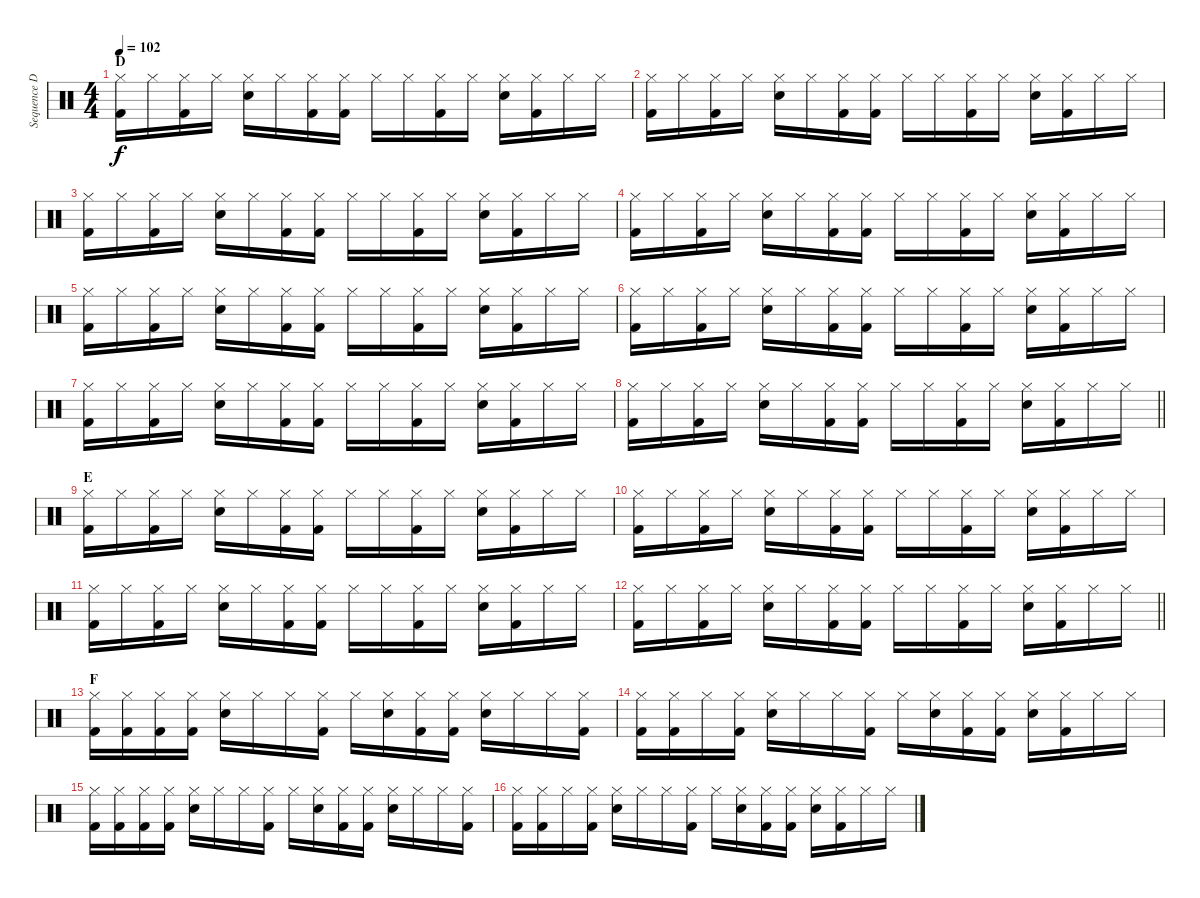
\track ("Sequence Drums" "Sequence D") {instrument percussion}
\staff {score}
\articulation defaults
\ts (4 4)
\section ("" "D")
\tempo 102
\clef neutral
\ks c
("Hi-Hat (closed)" "Kick (hit) 2").16{dy f} "Hi-Hat (closed)".16 ("Hi-Hat (closed)" "Kick (hit) 2").16 "Hi-Hat (closed)".16 ("Hi-Hat (closed)" "Electric Snare (hit)").16 "Hi-Hat (closed)".16 ("Hi-Hat (closed)" "Kick (hit) 2").16 ("Hi-Hat (closed)" "Kick (hit) 2").16 "Hi-Hat (closed)".16 "Hi-Hat (closed)".16 ("Hi-Hat (closed)" "Kick (hit) 2").16 "Hi-Hat (closed)".16 ("Hi-Hat (closed)" "Electric Snare (hit)").16 ("Hi-Hat (closed)" "Kick (hit) 2").16 "Hi-Hat (closed)".16 "Hi-Hat (closed)".16 |
("Hi-Hat (closed)" "Kick (hit) 2").16 "Hi-Hat (closed)".16 ("Hi-Hat (closed)" "Kick (hit) 2").16 "Hi-Hat (closed)".16 ("Hi-Hat (closed)" "Electric Snare (hit)").16 "Hi-Hat (closed)".16 ("Hi-Hat (closed)" "Kick (hit) 2").16 ("Hi-Hat (closed)" "Kick (hit) 2").16 "Hi-Hat (closed)".16 "Hi-Hat (closed)".16 ("Hi-Hat (closed)" "Kick (hit) 2").16 "Hi-Hat (closed)".16 ("Hi-Hat (closed)" "Electric Snare (hit)").16 ("Hi-Hat (closed)" "Kick (hit) 2").16 "Hi-Hat (closed)".16 "Hi-Hat (closed)".16 |
("Hi-Hat (closed)" "Kick (hit) 2").16 "Hi-Hat (closed)".16 ("Hi-Hat (closed)" "Kick (hit) 2").16 "Hi-Hat (closed)".16 ("Hi-Hat (closed)" "Electric Snare (hit)").16 "Hi-Hat (closed)".16 ("Hi-Hat (closed)" "Kick (hit) 2").16 ("Hi-Hat (closed)" "Kick (hit) 2").16 "Hi-Hat (closed)".16 "Hi-Hat (closed)".16 ("Hi-Hat (closed)" "Kick (hit) 2").16 "Hi-Hat (closed)".16 ("Hi-Hat (closed)" "Electric Snare (hit)").16 ("Hi-Hat (closed)" "Kick (hit) 2").16 "Hi-Hat (closed)".16 "Hi-Hat (closed)".16 |
("Hi-Hat (closed)" "Kick (hit) 2").16 "Hi-Hat (closed)".16 ("Hi-Hat (closed)" "Kick (hit) 2").16 "Hi-Hat (closed)".16 ("Hi-Hat (closed)" "Electric Snare (hit)").16 "Hi-Hat (closed)".16 ("Hi-Hat (closed)" "Kick (hit) 2").16 ("Hi-Hat (closed)" "Kick (hit) 2").16 "Hi-Hat (closed)".16 "Hi-Hat (closed)".16 ("Hi-Hat (closed)" "Kick (hit) 2").16 "Hi-Hat (closed)".16 ("Hi-Hat (closed)" "Electric Snare (hit)").16 ("Hi-Hat (closed)" "Kick (hit) 2").16 "Hi-Hat (closed)".16 "Hi-Hat (closed)".16 |
("Hi-Hat (closed)" "Kick (hit) 2").16 "Hi-Hat (closed)".16 ("Hi-Hat (closed)" "Kick (hit) 2").16 "Hi-Hat (closed)".16 ("Hi-Hat (closed)" "Electric Snare (hit)").16 "Hi-Hat (closed)".16 ("Hi-Hat (closed)" "Kick (hit) 2").16 ("Hi-Hat (closed)" "Kick (hit) 2").16 "Hi-Hat (closed)".16 "Hi-Hat (closed)".16 ("Hi-Hat (closed)" "Kick (hit) 2").16 "Hi-Hat (closed)".16 ("Hi-Hat (closed)" "Electric Snare (hit)").16 ("Hi-Hat (closed)" "Kick (hit) 2").16 "Hi-Hat (closed)".16 "Hi-Hat (closed)".16 |
("Hi-Hat (closed)" "Kick (hit) 2").16 "Hi-Hat (closed)".16 ("Hi-Hat (closed)" "Kick (hit) 2").16 "Hi-Hat (closed)".16 ("Hi-Hat (closed)" "Electric Snare (hit)").16 "Hi-Hat (closed)".16 ("Hi-Hat (closed)" "Kick (hit) 2").16 ("Hi-Hat (closed)" "Kick (hit) 2").16 "Hi-Hat (closed)".16 "Hi-Hat (closed)".16 ("Hi-Hat (closed)" "Kick (hit) 2").16 "Hi-Hat (closed)".16 ("Hi-Hat (closed)" "Electric Snare (hit)").16 ("Hi-Hat (closed)" "Kick (hit) 2").16 "Hi-Hat (closed)".16 "Hi-Hat (closed)".16 |
("Hi-Hat (closed)" "Kick (hit) 2").16 "Hi-Hat (closed)".16 ("Hi-Hat (closed)" "Kick (hit) 2").16 "Hi-Hat (closed)".16 ("Hi-Hat (closed)" "Electric Snare (hit)").16 "Hi-Hat (closed)".16 ("Hi-Hat (closed)" "Kick (hit) 2").16 ("Hi-Hat (closed)" "Kick (hit) 2").16 "Hi-Hat (closed)".16 "Hi-Hat (closed)".16 ("Hi-Hat (closed)" "Kick (hit) 2").16 "Hi-Hat (closed)".16 ("Hi-Hat (closed)" "Electric Snare (hit)").16 ("Hi-Hat (closed)" "Kick (hit) 2").16 "Hi-Hat (closed)".16 "Hi-Hat (closed)".16 |
\barLineRight lightlight
("Hi-Hat (closed)" "Kick (hit) 2").16 "Hi-Hat (closed)".16 ("Hi-Hat (closed)" "Kick (hit) 2").16 "Hi-Hat (closed)".16 ("Hi-Hat (closed)" "Electric Snare (hit)").16 "Hi-Hat (closed)".16 ("Hi-Hat (closed)" "Kick (hit) 2").16 ("Hi-Hat (closed)" "Kick (hit) 2").16 "Hi-Hat (closed)".16 "Hi-Hat (closed)".16 ("Hi-Hat (closed)" "Kick (hit) 2").16 "Hi-Hat (closed)".16 ("Hi-Hat (closed)" "Electric Snare (hit)").16 ("Hi-Hat (closed)" "Kick (hit) 2").16 "Hi-Hat (closed)".16 "Hi-Hat (closed)".16 |
\section ("" "E")
("Hi-Hat (closed)" "Kick (hit) 2").16 "Hi-Hat (closed)".16 ("Hi-Hat (closed)" "Kick (hit) 2").16 "Hi-Hat (closed)".16 ("Hi-Hat (closed)" "Electric Snare (hit)").16 "Hi-Hat (closed)".16 ("Hi-Hat (closed)" "Kick (hit) 2").16 ("Hi-Hat (closed)" "Kick (hit) 2").16 "Hi-Hat (closed)".16 "Hi-Hat (closed)".16 ("Hi-Hat (closed)" "Kick (hit) 2").16 "Hi-Hat (closed)".16 ("Hi-Hat (closed)" "Electric Snare (hit)").16 ("Hi-Hat (closed)" "Kick (hit) 2").16 "Hi-Hat (closed)".16 "Hi-Hat (closed)".16 |
("Hi-Hat (closed)" "Kick (hit) 2").16 "Hi-Hat (closed)".16 ("Hi-Hat (closed)" "Kick (hit) 2").16 "Hi-Hat (closed)".16 ("Hi-Hat (closed)" "Electric Snare (hit)").16 "Hi-Hat (closed)".16 ("Hi-Hat (closed)" "Kick (hit) 2").16 ("Hi-Hat (closed)" "Kick (hit) 2").16 "Hi-Hat (closed)".16 "Hi-Hat (closed)".16 ("Hi-Hat (closed)" "Kick (hit) 2").16 "Hi-Hat (closed)".16 ("Hi-Hat (closed)" "Electric Snare (hit)").16 ("Hi-Hat (closed)" "Kick (hit) 2").16 "Hi-Hat (closed)".16 "Hi-Hat (closed)".16 |
("Hi-Hat (closed)" "Kick (hit) 2").16 "Hi-Hat (closed)".16 ("Hi-Hat (closed)" "Kick (hit) 2").16 "Hi-Hat (closed)".16 ("Hi-Hat (closed)" "Electric Snare (hit)").16 "Hi-Hat (closed)".16 ("Hi-Hat (closed)" "Kick (hit) 2").16 ("Hi-Hat (closed)" "Kick (hit) 2").16 "Hi-Hat (closed)".16 "Hi-Hat (closed)".16 ("Hi-Hat (closed)" "Kick (hit) 2").16 "Hi-Hat (closed)".16 ("Hi-Hat (closed)" "Electric Snare (hit)").16 ("Hi-Hat (closed)" "Kick (hit) 2").16 "Hi-Hat (closed)".16 "Hi-Hat (closed)".16 |
\barLineRight lightlight
("Hi-Hat (closed)" "Kick (hit) 2").16 "Hi-Hat (closed)".16 ("Hi-Hat (closed)" "Kick (hit) 2").16 "Hi-Hat (closed)".16 ("Hi-Hat (closed)" "Electric Snare (hit)").16 "Hi-Hat (closed)".16 ("Hi-Hat (closed)" "Kick (hit) 2").16 ("Hi-Hat (closed)" "Kick (hit) 2").16 "Hi-Hat (closed)".16 "Hi-Hat (closed)".16 ("Hi-Hat (closed)" "Kick (hit) 2").16 "Hi-Hat (closed)".16 ("Hi-Hat (closed)" "Electric Snare (hit)").16 ("Hi-Hat (closed)" "Kick (hit) 2").16 "Hi-Hat (closed)".16 "Hi-Hat (closed)".16 |
\section ("" "F")
("Hi-Hat (closed)" "Kick (hit) 2").16 ("Hi-Hat (closed)" "Kick (hit) 2").16 ("Hi-Hat (closed)" "Kick (hit) 2").16 ("Hi-Hat (closed)" "Kick (hit) 2").16 ("Hi-Hat (closed)" "Electric Snare (hit)").16 "Hi-Hat (closed)".16 "Hi-Hat (closed)".16 ("Hi-Hat (closed)" "Kick (hit) 2").16 "Hi-Hat (closed)".16 ("Hi-Hat (closed)" "Electric Snare (hit)").16 ("Hi-Hat (closed)" "Kick (hit) 2").16 ("Hi-Hat (closed)" "Kick (hit) 2").16 ("Hi-Hat (closed)" "Electric Snare (hit)").16 "Hi-Hat (closed)".16 "Hi-Hat (closed)".16 ("Hi-Hat (closed)" "Kick (hit) 2").16 |
("Hi-Hat (closed)" "Kick (hit) 2").16 ("Hi-Hat (closed)" "Kick (hit) 2").16 "Hi-Hat (closed)".16 ("Hi-Hat (closed)" "Kick (hit) 2").16 ("Hi-Hat (closed)" "Electric Snare (hit)").16 "Hi-Hat (closed)".16 "Hi-Hat (closed)".16 ("Hi-Hat (closed)" "Kick (hit) 2").16 "Hi-Hat (closed)".16 ("Hi-Hat (closed)" "Electric Snare (hit)").16 ("Hi-Hat (closed)" "Kick (hit) 2").16 ("Hi-Hat (closed)" "Kick (hit) 2").16 ("Hi-Hat (closed)" "Electric Snare (hit)").16 ("Hi-Hat (closed)" "Kick (hit) 2").16 "Hi-Hat (closed)".16 "Hi-Hat (closed)".16 |
("Hi-Hat (closed)" "Kick (hit) 2").16 ("Hi-Hat (closed)" "Kick (hit) 2").16 ("Hi-Hat (closed)" "Kick (hit) 2").16 ("Hi-Hat (closed)" "Kick (hit) 2").16 ("Hi-Hat (closed)" "Electric Snare (hit)").16 "Hi-Hat (closed)".16 "Hi-Hat (closed)".16 ("Hi-Hat (closed)" "Kick (hit) 2").16 "Hi-Hat (closed)".16 ("Hi-Hat (closed)" "Electric Snare (hit)").16 ("Hi-Hat (closed)" "Kick (hit) 2").16 ("Hi-Hat (closed)" "Kick (hit) 2").16 ("Hi-Hat (closed)" "Electric Snare (hit)").16 "Hi-Hat (closed)".16 "Hi-Hat (closed)".16 ("Hi-Hat (closed)" "Kick (hit) 2").16 |
("Hi-Hat (closed)" "Kick (hit) 2").16 ("Hi-Hat (closed)" "Kick (hit) 2").16 "Hi-Hat (closed)".16 ("Hi-Hat (closed)" "Kick (hit) 2").16 ("Hi-Hat (closed)" "Electric Snare (hit)").16 "Hi-Hat (closed)".16 "Hi-Hat (closed)".16 ("Hi-Hat (closed)" "Kick (hit) 2").16 "Hi-Hat (closed)".16 ("Hi-Hat (closed)" "Electric Snare (hit)").16 ("Hi-Hat (closed)" "Kick (hit) 2").16 ("Hi-Hat (closed)" "Kick (hit) 2").16 ("Hi-Hat (closed)" "Electric Snare (hit)").16 ("Hi-Hat (closed)" "Kick (hit) 2").16 "Hi-Hat (closed)".16 "Hi-Hat (closed)".16
